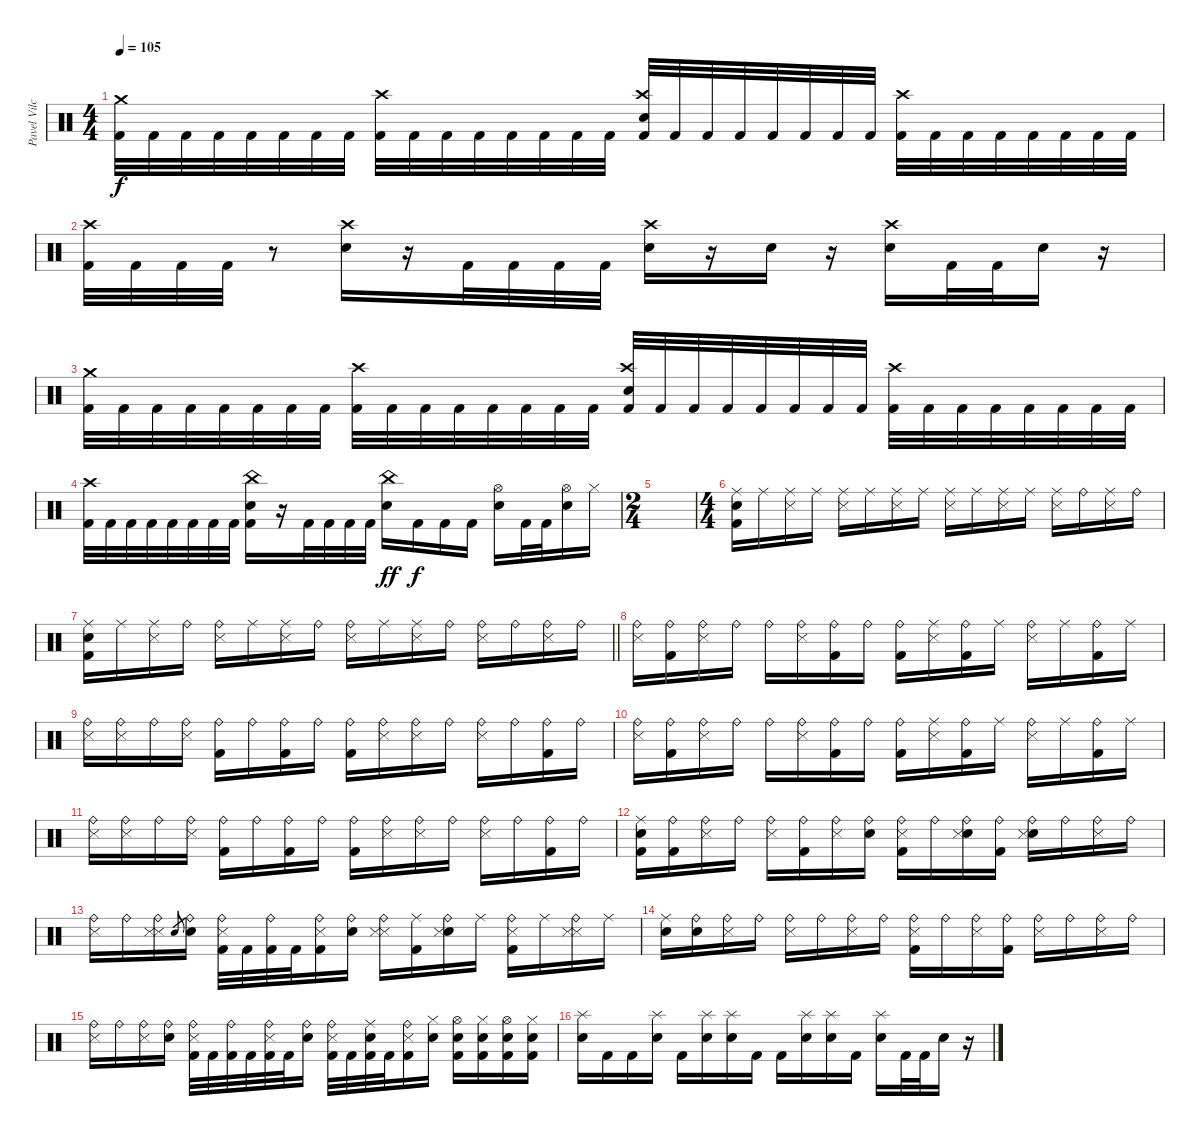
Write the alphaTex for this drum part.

\track ("Pavel Vilchytski" "Pavel Vilc") {instrument percussion}
\staff {score}
\articulation defaults
\ts (4 4)
\tempo 105
\clef neutral
\ks c
("Crash medium (hit)" "Kick (hit) 2").32{dy f} "Kick (hit) 2".32 "Kick (hit) 2".32 "Kick (hit) 2".32 "Kick (hit) 2".32 "Kick (hit) 2".32 "Kick (hit) 2".32 "Kick (hit) 2".32 ("Crash high (hit)" "Kick (hit) 2").32 "Kick (hit) 2".32 "Kick (hit) 2".32 "Kick (hit) 2".32 "Kick (hit) 2".32 "Kick (hit) 2".32 "Kick (hit) 2".32 "Kick (hit) 2".32 ("Crash high (hit)" "Electric Snare (hit)" "Kick (hit) 2").32 "Kick (hit) 2".32 "Kick (hit) 2".32 "Kick (hit) 2".32 "Kick (hit) 2".32 "Kick (hit) 2".32 "Kick (hit) 2".32 "Kick (hit) 2".32 ("Crash high (hit)" "Kick (hit) 2").32 "Kick (hit) 2".32 "Kick (hit) 2".32 "Kick (hit) 2".32 "Kick (hit) 2".32 "Kick (hit) 2".32 "Kick (hit) 2".32 "Kick (hit) 2".32 |
("Crash high (hit)" "Kick (hit) 2").32 "Kick (hit) 2".32 "Kick (hit) 2".32 "Kick (hit) 2".32 r.8 ("Crash high (hit)" "Electric Snare (hit)").16 r.16 "Kick (hit) 2".32 "Kick (hit) 2".32 "Kick (hit) 2".32 "Kick (hit) 2".32 ("Crash high (hit)" "Electric Snare (hit)").16 r.16 "Electric Snare (hit)".16 r.16 ("Crash high (hit)" "Electric Snare (hit)").16 "Kick (hit) 2".32 "Kick (hit) 2".32 "Electric Snare (hit)".16 r.16 |
("Crash medium (hit)" "Kick (hit) 2").32 "Kick (hit) 2".32 "Kick (hit) 2".32 "Kick (hit) 2".32 "Kick (hit) 2".32 "Kick (hit) 2".32 "Kick (hit) 2".32 "Kick (hit) 2".32 ("Crash high (hit)" "Kick (hit) 2").32 "Kick (hit) 2".32 "Kick (hit) 2".32 "Kick (hit) 2".32 "Kick (hit) 2".32 "Kick (hit) 2".32 "Kick (hit) 2".32 "Kick (hit) 2".32 ("Crash high (hit)" "Electric Snare (hit)" "Kick (hit) 2").32 "Kick (hit) 2".32 "Kick (hit) 2".32 "Kick (hit) 2".32 "Kick (hit) 2".32 "Kick (hit) 2".32 "Kick (hit) 2".32 "Kick (hit) 2".32 ("Crash high (hit)" "Kick (hit) 2").32 "Kick (hit) 2".32 "Kick (hit) 2".32 "Kick (hit) 2".32 "Kick (hit) 2".32 "Kick (hit) 2".32 "Kick (hit) 2".32 "Kick (hit) 2".32 |
("Crash high (hit)" "Kick (hit) 2").32 "Kick (hit) 2".32 "Kick (hit) 2".32 "Kick (hit) 2".32 "Kick (hit) 2".32 "Kick (hit) 2".32 "Kick (hit) 2".32 "Kick (hit) 2".32 ("China (hit)" "Electric Snare (hit)" "Kick (hit) 2").16 r.16 "Kick (hit) 2".32 "Kick (hit) 2".32 "Kick (hit) 2".32 "Kick (hit) 2".32 ("China (hit)" "Electric Snare (hit)").16{dy ff} "Kick (hit) 2".16{dy f} "Kick (hit) 2".16 "Kick (hit) 2".16 ("Hi-Hat (open)" "Electric Snare (hit)").16 "Kick (hit) 2".32 "Kick (hit) 2".32 ("Hi-Hat (open)" "Electric Snare (hit)").16 "Hi-Hat (closed)".16 |
\ts (2 4)
|
\ts (4 4)
("Ride (middle)" "Metronome (bell)" "Kick (hit) 2").16 "Ride (middle)".16 ("Ride (middle)" "Metronome (hit)").16 "Ride (middle)".16 ("Ride (middle)" "Metronome (hit)").16 "Ride (middle)".16 ("Ride (middle)" "Metronome (hit)").16 "Ride (middle)".16 ("Ride (middle)" "Metronome (hit)").16 "Ride (middle)".16 ("Ride (middle)" "Metronome (hit)").16 "Ride (middle)".16 ("Ride (middle)" "Metronome (hit)").16 "Ride (bell)".16 ("Ride (middle)" "Metronome (hit)").16 "Ride (bell)".16 |
\barLineRight lightlight
("Ride (middle)" "Metronome (bell)" "Kick (hit) 2").16 "Ride (middle)".16 ("Ride (middle)" "Metronome (hit)").16 "Ride (bell)".16 ("Ride (bell)" "Metronome (hit)").16 "Ride (middle)".16 ("Ride (middle)" "Metronome (hit)").16 "Ride (bell)".16 ("Ride (bell)" "Metronome (hit)").16 "Ride (middle)".16 ("Ride (middle)" "Metronome (hit)").16 "Ride (bell)".16 ("Ride (bell)" "Metronome (hit)").16 "Ride (bell)".16 ("Ride (bell)" "Metronome (hit)").16 "Ride (bell)".16 |
\section ("" "")
("Ride (bell)" "Metronome (hit)").16 ("Ride (bell)" "Kick (hit) 2").16 ("Ride (bell)" "Metronome (hit)").16 "Ride (bell)".16 "Ride (bell)".16 ("Ride (bell)" "Metronome (hit)").16 ("Ride (bell)" "Kick (hit) 2").16 "Ride (bell)".16 ("Ride (bell)" "Kick (hit) 2").16 ("Ride (middle)" "Metronome (hit)").16 ("Ride (bell)" "Kick (hit) 2").16 "Ride (middle)".16 ("Ride (bell)" "Metronome (hit)").16 "Ride (middle)".16 ("Ride (bell)" "Kick (hit) 2").16 "Ride (middle)".16 |
("Ride (bell)" "Metronome (hit)").16 ("Ride (bell)" "Metronome (hit)").16 "Ride (bell)".16 ("Ride (bell)" "Metronome (hit)").16 ("Ride (bell)" "Kick (hit) 2").16 "Ride (bell)".16 ("Ride (bell)" "Kick (hit) 2").16 "Ride (bell)".16 ("Ride (bell)" "Kick (hit) 2").16 ("Ride (bell)" "Metronome (hit)").16 ("Ride (bell)" "Metronome (hit)").16 "Ride (bell)".16 ("Ride (bell)" "Metronome (hit)").16 "Ride (bell)".16 ("Ride (bell)" "Kick (hit) 2").16 "Ride (bell)".16 |
("Ride (bell)" "Metronome (hit)").16 ("Ride (bell)" "Kick (hit) 2").16 ("Ride (bell)" "Metronome (hit)").16 "Ride (bell)".16 "Ride (bell)".16 ("Ride (bell)" "Metronome (hit)").16 ("Ride (bell)" "Kick (hit) 2").16 "Ride (bell)".16 ("Ride (bell)" "Kick (hit) 2").16 ("Ride (middle)" "Metronome (hit)").16 ("Ride (bell)" "Kick (hit) 2").16 "Ride (middle)".16 ("Ride (bell)" "Metronome (hit)").16 "Ride (middle)".16 ("Ride (bell)" "Kick (hit) 2").16 "Ride (middle)".16 |
("Ride (bell)" "Metronome (hit)").16 ("Ride (bell)" "Metronome (hit)").16 "Ride (bell)".16 ("Ride (bell)" "Metronome (hit)").16 ("Ride (bell)" "Kick (hit) 2").16 "Ride (bell)".16 ("Ride (bell)" "Kick (hit) 2").16 "Ride (bell)".16 ("Ride (bell)" "Kick (hit) 2").16 ("Ride (bell)" "Metronome (hit)").16 ("Ride (bell)" "Metronome (hit)").16 "Ride (bell)".16 ("Ride (bell)" "Metronome (hit)").16 "Ride (bell)".16 ("Ride (bell)" "Kick (hit) 2").16 "Ride (bell)".16 |
("Ride (middle)" "Metronome (bell)" "Kick (hit) 2").16 ("Ride (bell)" "Kick (hit) 2").16 ("Ride (bell)" "Metronome (hit)").16 "Ride (bell)".16 ("Ride (bell)" "Metronome (hit)").16 ("Ride (bell)" "Kick (hit) 2").16 ("Ride (bell)" "Metronome (hit)").16 ("Ride (bell)" "Electric Snare (hit)").16 ("Ride (bell)" "Metronome (hit)" "Kick (hit) 2").16 "Ride (bell)".16 ("Ride (bell)" "Electric Snare (hit)" "Metronome (hit)").16 ("Ride (bell)" "Kick (hit) 2").16 ("Ride (bell)" "Electric Snare (hit)" "Metronome (hit)").16 "Ride (bell)".16 ("Ride (bell)" "Metronome (hit)").16 "Ride (bell)".16 |
("Ride (bell)" "Metronome (hit)").16 "Ride (bell)".16 ("Ride (bell)" "Metronome (hit)" "Metronome (hit)").16 "Electric Snare (hit)".8{gr} ("Ride (bell)" "Electric Snare (hit)").16 ("Ride (bell)" "Metronome (hit)" "Kick (hit) 2").32 "Kick (hit) 2".32 ("Ride (bell)" "Kick (hit) 2").32 "Kick (hit) 2".32 ("Ride (bell)" "Metronome (hit)" "Kick (hit) 2").16 ("Ride (bell)" "Electric Snare (hit)").16 ("Ride (bell)" "Metronome (hit)" "Metronome (hit)").16 ("Ride (middle)" "Kick (hit) 2").16 ("Ride (bell)" "Electric Snare (hit)" "Metronome (hit)").16 "Ride (middle)".16 ("Ride (bell)" "Metronome (hit)" "Kick (hit) 2").16 "Ride (middle)".16 ("Ride (bell)" "Metronome (hit)" "Metronome (hit)").16 "Ride (middle)".16 |
("Ride (middle)" "Metronome (bell)").16 ("Ride (bell)" "Electric Snare (hit)").16 ("Ride (bell)" "Metronome (hit)").16 "Ride (bell)".16 ("Ride (bell)" "Metronome (hit)").16 "Ride (bell)".16 ("Ride (bell)" "Metronome (hit)").16 "Ride (bell)".16 ("Ride (bell)" "Metronome (hit)" "Kick (hit) 2").16 "Ride (bell)".16 ("Ride (bell)" "Metronome (hit)").16 ("Ride (bell)" "Kick (hit) 2").16 ("Ride (bell)" "Metronome (hit)").16 "Ride (bell)".16 ("Ride (bell)" "Metronome (hit)").16 "Ride (bell)".16 |
("Ride (bell)" "Metronome (hit)").16 "Ride (bell)".16 ("Ride (bell)" "Metronome (hit)").16 ("Ride (bell)" "Electric Snare (hit)").16 ("Ride (bell)" "Metronome (hit)" "Kick (hit) 2").32 "Kick (hit) 2".32 ("Ride (bell)" "Kick (hit) 2").32 "Kick (hit) 2".32 ("Ride (bell)" "Metronome (hit)" "Kick (hit) 2").32 "Kick (hit) 2".32 ("Ride (bell)" "Electric Snare (hit)").16 ("Ride (bell)" "Metronome (hit)" "Kick (hit) 2").32 "Kick (hit) 2".32 ("Ride (middle)" "Electric Snare (hit)" "Kick (hit) 2").32 "Kick (hit) 2".32 ("Ride (bell)" "Metronome (hit)" "Kick (hit) 2").16 ("Hi-Hat (closed)" "Electric Snare (hit)").16 ("Hi-Hat (open)" "Electric Snare (hit)" "Kick (hit) 2").16 ("Hi-Hat (closed)" "Electric Snare (hit)" "Kick (hit) 2").16 ("Hi-Hat (open)" "Electric Snare (hit)" "Kick (hit) 2").16 ("Hi-Hat (closed)" "Electric Snare (hit)" "Kick (hit) 2").16 |
("Splash (hit)" "Electric Snare (hit)").16 "Kick (hit) 2".16 "Kick (hit) 2".16 ("Splash (hit)" "Electric Snare (hit)").16 "Kick (hit) 2".16 ("Splash (hit)" "Electric Snare (hit)").16 ("Splash (hit)" "Electric Snare (hit)").16 "Kick (hit) 2".16 "Kick (hit) 2".16 ("Splash (hit)" "Electric Snare (hit)").16 ("Splash (hit)" "Electric Snare (hit)").16 "Kick (hit) 2".16 ("Splash (hit)" "Electric Snare (hit)").16 "Kick (hit) 2".32 "Kick (hit) 2".32 "Electric Snare (hit)".16 r.16
